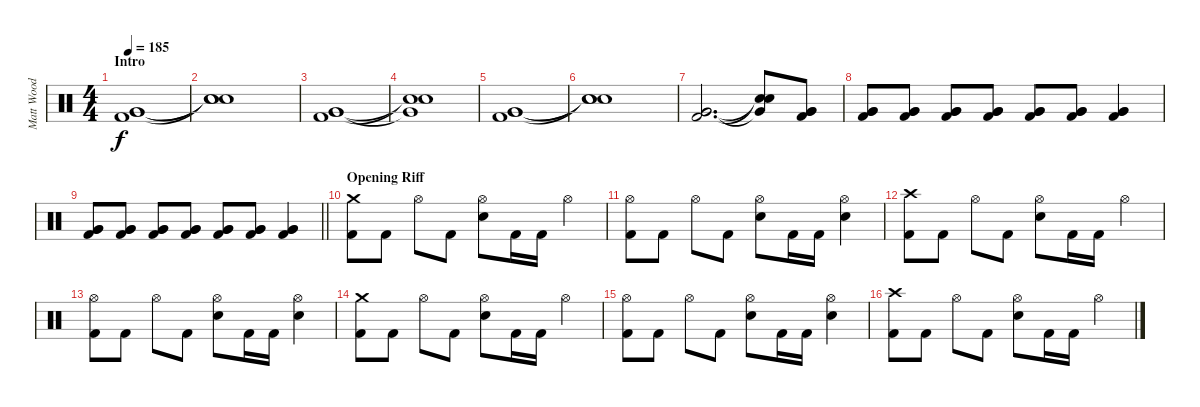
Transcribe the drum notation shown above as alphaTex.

\track ("Matt Wood" "Matt Wood") {instrument percussion}
\staff {score}
\articulation defaults
\ts (4 4)
\section ("" "Intro")
\tempo 185
\clef neutral
\ks c
("Very Low Tom (hit)" "Very Low Tom (hit)" "Kick (hit) 2").1{dy f} |
("Snare (hit)"{t} "Snare (hit)"{t} "Snare (hit)"{t}).1 |
("Very Low Tom (hit)" "Very Low Tom (hit)" "Kick (hit) 2").1 |
("Snare (hit)"{t} "Very Low Tom (hit)"{t} "Snare (hit)"{t}).1 |
("Very Low Tom (hit)" "Very Low Tom (hit)" "Kick (hit) 2").1 |
("Snare (hit)"{t} "Snare (hit)"{t} "Snare (hit)"{t}).1 |
("Very Low Tom (hit)" "Very Low Tom (hit)" "Kick (hit) 2").2{d} ("Very Low Tom (hit)"{t} "Snare (hit)"{t} "Snare (hit)"{t}).8 ("Very Low Tom (hit)" "Very Low Tom (hit)" "Kick (hit) 2").8 |
("Very Low Tom (hit)" "Very Low Tom (hit)" "Kick (hit) 2").8 ("Very Low Tom (hit)" "Very Low Tom (hit)" "Kick (hit) 2").8 ("Very Low Tom (hit)" "Very Low Tom (hit)" "Kick (hit) 2").8 ("Very Low Tom (hit)" "Very Low Tom (hit)" "Kick (hit) 2").8 ("Very Low Tom (hit)" "Very Low Tom (hit)" "Kick (hit) 2").8 ("Very Low Tom (hit)" "Very Low Tom (hit)" "Kick (hit) 2").8 ("Very Low Tom (hit)" "Very Low Tom (hit)" "Kick (hit) 2").4 |
\barLineRight lightlight
("Very Low Tom (hit)" "Very Low Tom (hit)" "Kick (hit) 2").8 ("Very Low Tom (hit)" "Very Low Tom (hit)" "Kick (hit) 2").8 ("Very Low Tom (hit)" "Very Low Tom (hit)" "Kick (hit) 2").8 ("Very Low Tom (hit)" "Very Low Tom (hit)" "Kick (hit) 2").8 ("Very Low Tom (hit)" "Very Low Tom (hit)" "Kick (hit) 2").8 ("Very Low Tom (hit)" "Very Low Tom (hit)" "Kick (hit) 2").8 ("Very Low Tom (hit)" "Very Low Tom (hit)" "Kick (hit) 2").4 |
\section ("" "Opening Riff")
("Crash medium (hit)" "Kick (hit) 2").8 "Kick (hit) 2".8 "Hi-Hat (open)".8 "Kick (hit) 2".8 ("Hi-Hat (open)" "Snare (hit) 2").8 "Kick (hit) 2".16 "Kick (hit) 2".16 "Hi-Hat (open)".4 |
("Hi-Hat (open)" "Kick (hit) 2").8 "Kick (hit) 2".8 "Hi-Hat (open)".8 "Kick (hit) 2".8 ("Hi-Hat (open)" "Snare (hit) 2").8 "Kick (hit) 2".16 "Kick (hit) 2".16 ("Hi-Hat (open)" "Snare (hit) 2").4 |
("Crash high (hit)" "Kick (hit) 2").8 "Kick (hit) 2".8 "Hi-Hat (open)".8 "Kick (hit) 2".8 ("Hi-Hat (open)" "Snare (hit) 2").8 "Kick (hit) 2".16 "Kick (hit) 2".16 "Hi-Hat (open)".4 |
("Hi-Hat (open)" "Kick (hit) 2").8 "Kick (hit) 2".8 "Hi-Hat (open)".8 "Kick (hit) 2".8 ("Hi-Hat (open)" "Snare (hit) 2").8 "Kick (hit) 2".16 "Kick (hit) 2".16 ("Hi-Hat (open)" "Snare (hit) 2").4 |
("Crash medium (hit)" "Kick (hit) 2").8 "Kick (hit) 2".8 "Hi-Hat (open)".8 "Kick (hit) 2".8 ("Hi-Hat (open)" "Snare (hit) 2").8 "Kick (hit) 2".16 "Kick (hit) 2".16 "Hi-Hat (open)".4 |
("Hi-Hat (open)" "Kick (hit) 2").8 "Kick (hit) 2".8 "Hi-Hat (open)".8 "Kick (hit) 2".8 ("Hi-Hat (open)" "Snare (hit) 2").8 "Kick (hit) 2".16 "Kick (hit) 2".16 ("Hi-Hat (open)" "Snare (hit) 2").4 |
("Crash high (hit)" "Kick (hit) 2").8 "Kick (hit) 2".8 "Hi-Hat (open)".8 "Kick (hit) 2".8 ("Hi-Hat (open)" "Snare (hit) 2").8 "Kick (hit) 2".16 "Kick (hit) 2".16 "Hi-Hat (open)".4
